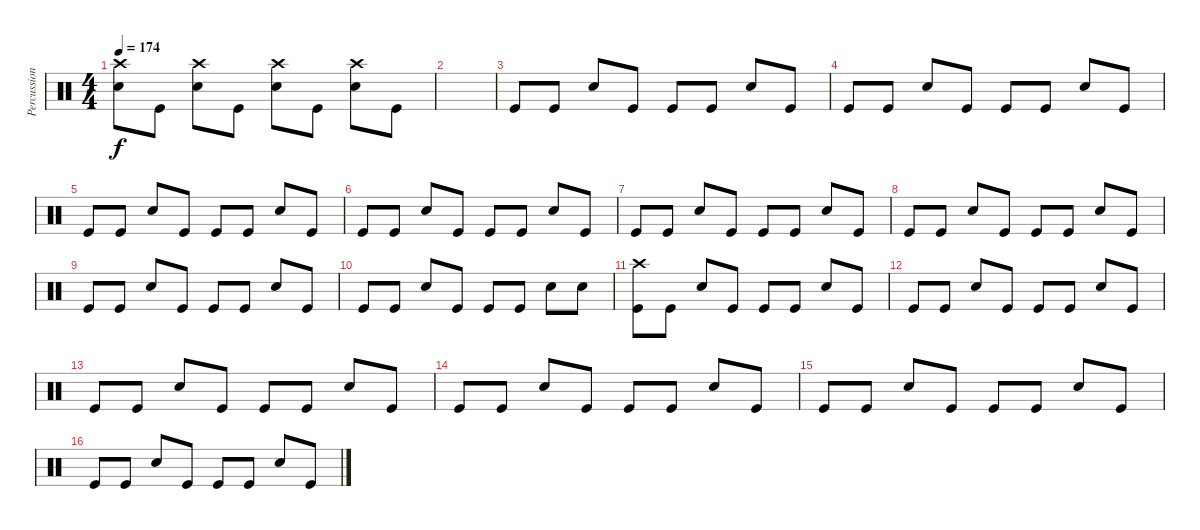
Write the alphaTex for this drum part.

\track ("Percussion" "Percussion") {instrument percussion}
\staff {score}
\articulation defaults
\ts (4 4)
\tempo 174
\clef neutral
\ks c
("Crash high (hit)" "Electric Snare (hit)").8{dy f} "Kick (hit)".8 ("Crash high (hit)" "Electric Snare (hit)").8 "Kick (hit)".8 ("Crash high (hit)" "Electric Snare (hit)").8 "Kick (hit)".8 ("Crash high (hit)" "Electric Snare (hit)").8 "Kick (hit)".8 |
|
"Kick (hit)".8 "Kick (hit)".8 "Electric Snare (hit)".8 "Kick (hit)".8 "Kick (hit)".8 "Kick (hit)".8 "Electric Snare (hit)".8 "Kick (hit)".8 |
"Kick (hit)".8 "Kick (hit)".8 "Electric Snare (hit)".8 "Kick (hit)".8 "Kick (hit)".8 "Kick (hit)".8 "Electric Snare (hit)".8 "Kick (hit)".8 |
"Kick (hit)".8 "Kick (hit)".8 "Electric Snare (hit)".8 "Kick (hit)".8 "Kick (hit)".8 "Kick (hit)".8 "Electric Snare (hit)".8 "Kick (hit)".8 |
"Kick (hit)".8 "Kick (hit)".8 "Electric Snare (hit)".8 "Kick (hit)".8 "Kick (hit)".8 "Kick (hit)".8 "Electric Snare (hit)".8 "Kick (hit)".8 |
"Kick (hit)".8 "Kick (hit)".8 "Electric Snare (hit)".8 "Kick (hit)".8 "Kick (hit)".8 "Kick (hit)".8 "Electric Snare (hit)".8 "Kick (hit)".8 |
"Kick (hit)".8 "Kick (hit)".8 "Electric Snare (hit)".8 "Kick (hit)".8 "Kick (hit)".8 "Kick (hit)".8 "Electric Snare (hit)".8 "Kick (hit)".8 |
"Kick (hit)".8 "Kick (hit)".8 "Electric Snare (hit)".8 "Kick (hit)".8 "Kick (hit)".8 "Kick (hit)".8 "Electric Snare (hit)".8 "Kick (hit)".8 |
"Kick (hit)".8 "Kick (hit)".8 "Electric Snare (hit)".8 "Kick (hit)".8 "Kick (hit)".8 "Kick (hit)".8 "Electric Snare (hit)".8 "Electric Snare (hit)".8 |
("Crash high (hit)" "Kick (hit)").8 "Kick (hit)".8 "Electric Snare (hit)".8 "Kick (hit)".8 "Kick (hit)".8 "Kick (hit)".8 "Electric Snare (hit)".8 "Kick (hit)".8 |
"Kick (hit)".8 "Kick (hit)".8 "Electric Snare (hit)".8 "Kick (hit)".8 "Kick (hit)".8 "Kick (hit)".8 "Electric Snare (hit)".8 "Kick (hit)".8 |
"Kick (hit)".8 "Kick (hit)".8 "Electric Snare (hit)".8 "Kick (hit)".8 "Kick (hit)".8 "Kick (hit)".8 "Electric Snare (hit)".8 "Kick (hit)".8 |
"Kick (hit)".8 "Kick (hit)".8 "Electric Snare (hit)".8 "Kick (hit)".8 "Kick (hit)".8 "Kick (hit)".8 "Electric Snare (hit)".8 "Kick (hit)".8 |
"Kick (hit)".8 "Kick (hit)".8 "Electric Snare (hit)".8 "Kick (hit)".8 "Kick (hit)".8 "Kick (hit)".8 "Electric Snare (hit)".8 "Kick (hit)".8 |
"Kick (hit)".8 "Kick (hit)".8 "Electric Snare (hit)".8 "Kick (hit)".8 "Kick (hit)".8 "Kick (hit)".8 "Electric Snare (hit)".8 "Kick (hit)".8
